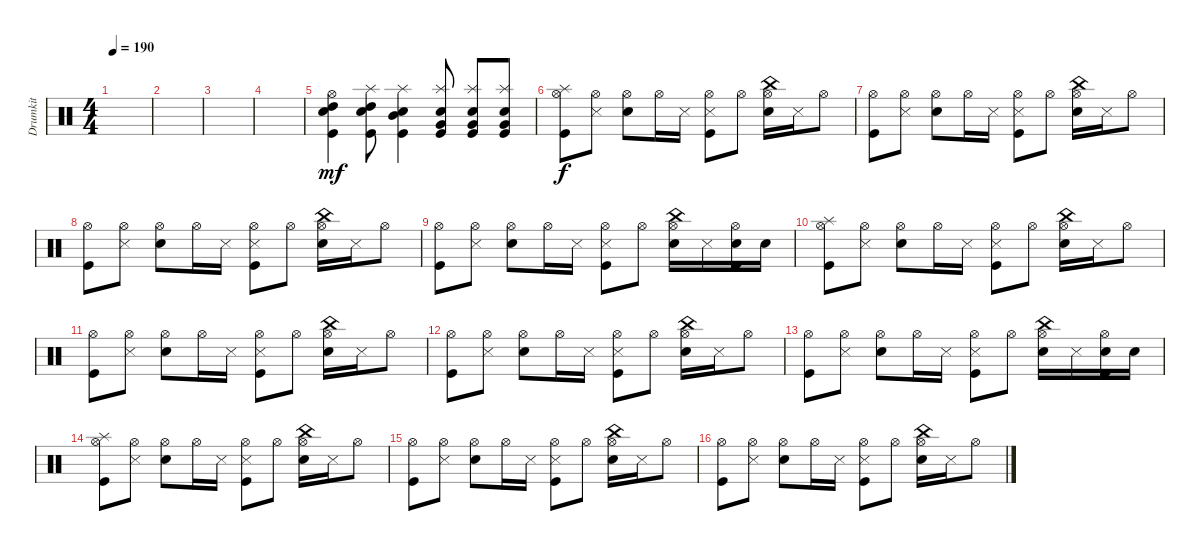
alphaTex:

\track ("Drumkit" "Drumkit") {instrument percussion}
\staff {score}
\articulation defaults
\ts (4 4)
\tempo 190
\clef neutral
\ks c
|
|
|
|
("Snare (hit) 2" "Kick (hit)" "Hi-Hat (open)" "High Tom (hit)").4{dy mf} ("Kick (hit)" "Snare (hit) 2" "Splash (hit)" "High Tom (hit)").8 ("Snare (hit) 2" "Kick (hit)" "Splash (hit)" "Mid Tom (hit)").4 ("Kick (hit)" "Snare (hit) 2" "Splash (hit)" "Very Low Tom (hit)").8 ("Kick (hit)" "Snare (hit) 2" "Splash (hit)" "Very Low Tom (hit)").8 ("Kick (hit)" "Snare (hit) 2" "Splash (hit)" "Very Low Tom (hit)").8 |
("Kick (hit)" "Hi-Hat (open)" "Splash (hit)").8{dy f} ("Hi-Hat (open)" "Snare (side stick) 3").8 ("Snare (hit) 2" "Hi-Hat (open)").8 "Hi-Hat (open)".16 "Snare (side stick) 3".16 ("Kick (hit)" "Hi-Hat (open)" "Snare (side stick) 3").8 "Hi-Hat (open)".8 ("Snare (hit) 2" "Hi-Hat (open)" "China (hit)").16 "Snare (side stick) 3".16 "Hi-Hat (open)".8 |
("Kick (hit)" "Hi-Hat (open)").8 ("Hi-Hat (open)" "Snare (side stick) 3").8 ("Snare (hit) 2" "Hi-Hat (open)").8 "Hi-Hat (open)".16 "Snare (side stick) 3".16 ("Kick (hit)" "Hi-Hat (open)" "Snare (side stick) 3").8 "Hi-Hat (open)".8 ("Snare (hit) 2" "Hi-Hat (open)" "China (hit)").16 "Snare (side stick) 3".16 "Hi-Hat (open)".8 |
("Kick (hit)" "Hi-Hat (open)").8 ("Hi-Hat (open)" "Snare (side stick) 3").8 ("Snare (hit) 2" "Hi-Hat (open)").8 "Hi-Hat (open)".16 "Snare (side stick) 3".16 ("Kick (hit)" "Hi-Hat (open)" "Snare (side stick) 3").8 "Hi-Hat (open)".8 ("Snare (hit) 2" "Hi-Hat (open)" "China (hit)").16 "Snare (side stick) 3".16 "Hi-Hat (open)".8 |
("Kick (hit)" "Hi-Hat (open)").8 ("Hi-Hat (open)" "Snare (side stick) 3").8 ("Snare (hit) 2" "Hi-Hat (open)").8 "Hi-Hat (open)".16 "Snare (side stick) 3".16 ("Kick (hit)" "Hi-Hat (open)" "Snare (side stick) 3").8 "Hi-Hat (open)".8 ("Snare (hit) 2" "Hi-Hat (open)" "China (hit)").16 "Snare (side stick) 3".16 ("Hi-Hat (open)" "Kick (hit)" "Snare (hit) 2").16 "Snare (hit) 2".16 |
("Kick (hit)" "Hi-Hat (open)" "Splash (hit)").8 ("Hi-Hat (open)" "Snare (side stick) 3").8 ("Snare (hit) 2" "Hi-Hat (open)").8 "Hi-Hat (open)".16 "Snare (side stick) 3".16 ("Kick (hit)" "Hi-Hat (open)" "Snare (side stick) 3").8 "Hi-Hat (open)".8 ("Snare (hit) 2" "Hi-Hat (open)" "China (hit)").16 "Snare (side stick) 3".16 "Hi-Hat (open)".8 |
("Kick (hit)" "Hi-Hat (open)").8 ("Hi-Hat (open)" "Snare (side stick) 3").8 ("Snare (hit) 2" "Hi-Hat (open)").8 "Hi-Hat (open)".16 "Snare (side stick) 3".16 ("Kick (hit)" "Hi-Hat (open)" "Snare (side stick) 3").8 "Hi-Hat (open)".8 ("Snare (hit) 2" "Hi-Hat (open)" "China (hit)").16 "Snare (side stick) 3".16 "Hi-Hat (open)".8 |
("Kick (hit)" "Hi-Hat (open)").8 ("Hi-Hat (open)" "Snare (side stick) 3").8 ("Snare (hit) 2" "Hi-Hat (open)").8 "Hi-Hat (open)".16 "Snare (side stick) 3".16 ("Kick (hit)" "Hi-Hat (open)" "Snare (side stick) 3").8 "Hi-Hat (open)".8 ("Snare (hit) 2" "Hi-Hat (open)" "China (hit)").16 "Snare (side stick) 3".16 "Hi-Hat (open)".8 |
("Kick (hit)" "Hi-Hat (open)").8 ("Hi-Hat (open)" "Snare (side stick) 3").8 ("Snare (hit) 2" "Hi-Hat (open)").8 "Hi-Hat (open)".16 "Snare (side stick) 3".16 ("Kick (hit)" "Hi-Hat (open)" "Snare (side stick) 3").8 "Hi-Hat (open)".8 ("Snare (hit) 2" "Hi-Hat (open)" "China (hit)").16 "Snare (side stick) 3".16 ("Hi-Hat (open)" "Kick (hit)" "Snare (hit) 2").16 "Snare (hit) 2".16 |
("Kick (hit)" "Hi-Hat (open)" "Splash (hit)").8 ("Hi-Hat (open)" "Snare (side stick) 3").8 ("Snare (hit) 2" "Hi-Hat (open)").8 "Hi-Hat (open)".16 "Snare (side stick) 3".16 ("Kick (hit)" "Hi-Hat (open)" "Snare (side stick) 3").8 "Hi-Hat (open)".8 ("Snare (hit) 2" "Hi-Hat (open)" "China (hit)").16 "Snare (side stick) 3".16 "Hi-Hat (open)".8 |
("Kick (hit)" "Hi-Hat (open)").8 ("Hi-Hat (open)" "Snare (side stick) 3").8 ("Snare (hit) 2" "Hi-Hat (open)").8 "Hi-Hat (open)".16 "Snare (side stick) 3".16 ("Kick (hit)" "Hi-Hat (open)" "Snare (side stick) 3").8 "Hi-Hat (open)".8 ("Snare (hit) 2" "Hi-Hat (open)" "China (hit)").16 "Snare (side stick) 3".16 "Hi-Hat (open)".8 |
("Kick (hit)" "Hi-Hat (open)").8 ("Hi-Hat (open)" "Snare (side stick) 3").8 ("Snare (hit) 2" "Hi-Hat (open)").8 "Hi-Hat (open)".16 "Snare (side stick) 3".16 ("Kick (hit)" "Hi-Hat (open)" "Snare (side stick) 3").8 "Hi-Hat (open)".8 ("Snare (hit) 2" "Hi-Hat (open)" "China (hit)").16 "Snare (side stick) 3".16 "Hi-Hat (open)".8
